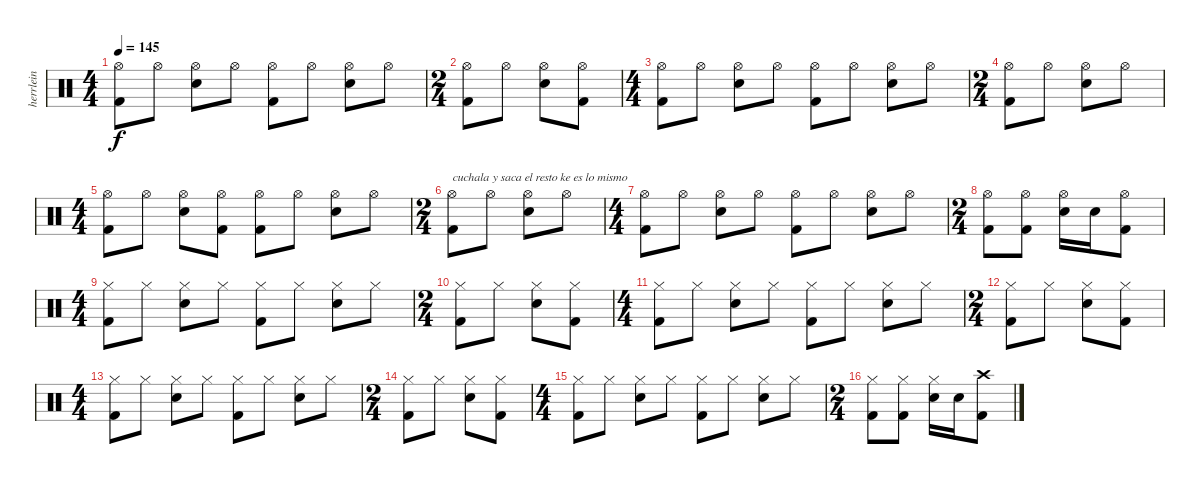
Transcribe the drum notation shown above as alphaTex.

\track ("herrlein" "herrlein") {instrument percussion}
\staff {score}
\articulation defaults
\ts (4 4)
\tempo 145
\clef neutral
\ks c
("Kick (hit) 2" "Hi-Hat (open)").8{dy f} "Hi-Hat (open)".8 ("Hi-Hat (open)" "Snare (hit) 2").8 "Hi-Hat (open)".8 ("Kick (hit) 2" "Hi-Hat (open)").8 "Hi-Hat (open)".8 ("Hi-Hat (open)" "Snare (hit) 2").8 "Hi-Hat (open)".8 |
\ts (2 4)
("Kick (hit) 2" "Hi-Hat (open)").8 "Hi-Hat (open)".8 ("Hi-Hat (open)" "Snare (hit) 2").8 ("Kick (hit) 2" "Hi-Hat (open)").8 |
\ts (4 4)
("Kick (hit) 2" "Hi-Hat (open)").8 "Hi-Hat (open)".8 ("Hi-Hat (open)" "Snare (hit) 2").8 "Hi-Hat (open)".8 ("Kick (hit) 2" "Hi-Hat (open)").8 "Hi-Hat (open)".8 ("Hi-Hat (open)" "Snare (hit) 2").8 "Hi-Hat (open)".8 |
\ts (2 4)
("Kick (hit) 2" "Hi-Hat (open)").8 "Hi-Hat (open)".8 ("Hi-Hat (open)" "Snare (hit) 2").8 "Hi-Hat (open)".8 |
\ts (4 4)
("Kick (hit) 2" "Hi-Hat (open)").8 "Hi-Hat (open)".8 ("Hi-Hat (open)" "Snare (hit) 2").8 ("Kick (hit) 2" "Hi-Hat (open)").8 ("Kick (hit) 2" "Hi-Hat (open)").8 "Hi-Hat (open)".8 ("Hi-Hat (open)" "Snare (hit) 2").8 "Hi-Hat (open)".8 |
\ts (2 4)
("Kick (hit) 2" "Hi-Hat (open)").8{txt "cuchala y saca el resto ke es lo mismo"} "Hi-Hat (open)".8 ("Hi-Hat (open)" "Snare (hit) 2").8 "Hi-Hat (open)".8 |
\ts (4 4)
("Kick (hit) 2" "Hi-Hat (open)").8 "Hi-Hat (open)".8 ("Hi-Hat (open)" "Snare (hit) 2").8 "Hi-Hat (open)".8 ("Kick (hit) 2" "Hi-Hat (open)").8 "Hi-Hat (open)".8 ("Hi-Hat (open)" "Snare (hit) 2").8 "Hi-Hat (open)".8 |
\ts (2 4)
("Kick (hit) 2" "Hi-Hat (open)").8 ("Kick (hit) 2" "Hi-Hat (open)").8 ("Hi-Hat (open)" "Snare (hit) 2").16 "Snare (hit) 2".16 ("Kick (hit) 2" "Hi-Hat (open)").8 |
\ts (4 4)
("Kick (hit) 2" "Hi-Hat (closed)").8 "Hi-Hat (closed)".8 ("Hi-Hat (closed)" "Snare (hit) 2").8 "Hi-Hat (closed)".8 ("Kick (hit) 2" "Hi-Hat (closed)").8 "Hi-Hat (closed)".8 ("Hi-Hat (closed)" "Snare (hit) 2").8 "Hi-Hat (closed)".8 |
\ts (2 4)
("Kick (hit) 2" "Hi-Hat (closed)").8 "Hi-Hat (closed)".8 ("Hi-Hat (closed)" "Snare (hit) 2").8 ("Kick (hit) 2" "Hi-Hat (closed)").8 |
\ts (4 4)
("Kick (hit) 2" "Hi-Hat (closed)").8 "Hi-Hat (closed)".8 ("Hi-Hat (closed)" "Snare (hit) 2").8 "Hi-Hat (closed)".8 ("Kick (hit) 2" "Hi-Hat (closed)").8 "Hi-Hat (closed)".8 ("Hi-Hat (closed)" "Snare (hit) 2").8 "Hi-Hat (closed)".8 |
\ts (2 4)
("Kick (hit) 2" "Hi-Hat (closed)").8 "Hi-Hat (closed)".8 ("Hi-Hat (closed)" "Snare (hit) 2").8 ("Kick (hit) 2" "Hi-Hat (closed)").8 |
\ts (4 4)
("Kick (hit) 2" "Hi-Hat (closed)").8 "Hi-Hat (closed)".8 ("Hi-Hat (closed)" "Snare (hit) 2").8 "Hi-Hat (closed)".8 ("Kick (hit) 2" "Hi-Hat (closed)").8 "Hi-Hat (closed)".8 ("Hi-Hat (closed)" "Snare (hit) 2").8 "Hi-Hat (closed)".8 |
\ts (2 4)
("Kick (hit) 2" "Hi-Hat (closed)").8 "Hi-Hat (closed)".8 ("Hi-Hat (closed)" "Snare (hit) 2").8 ("Kick (hit) 2" "Hi-Hat (closed)").8 |
\ts (4 4)
("Kick (hit) 2" "Hi-Hat (closed)").8 "Hi-Hat (closed)".8 ("Hi-Hat (closed)" "Snare (hit) 2").8 "Hi-Hat (closed)".8 ("Kick (hit) 2" "Hi-Hat (closed)").8 "Hi-Hat (closed)".8 ("Hi-Hat (closed)" "Snare (hit) 2").8 "Hi-Hat (closed)".8 |
\ts (2 4)
("Kick (hit) 2" "Hi-Hat (closed)").8 ("Kick (hit) 2" "Hi-Hat (closed)").8 ("Hi-Hat (closed)" "Snare (hit) 2").16 "Snare (hit) 2".16 ("Kick (hit) 2" "Crash high (hit)").8
